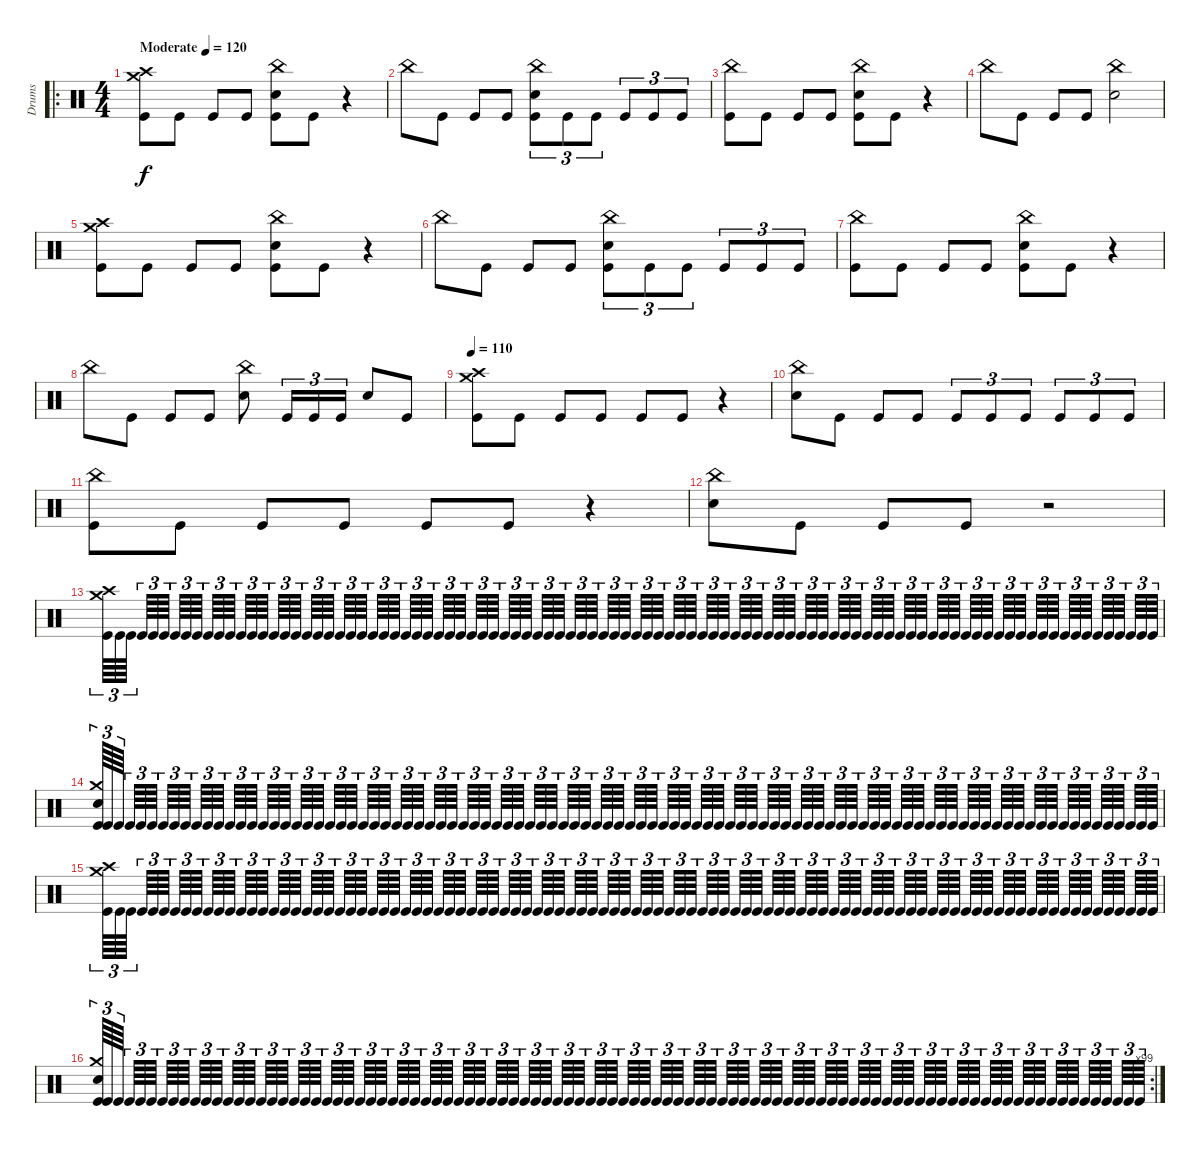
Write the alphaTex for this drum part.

\track ("Drums" "Drums") {instrument percussion}
\staff {score}
\articulation defaults
\ro
\ts (4 4)
\tempo (120 "Moderate")
\clef neutral
\ks c
("Kick (hit)" "Crash medium (hit)" "Crash high (hit)").8{dy f} "Kick (hit)".8 "Kick (hit)".8 "Kick (hit)".8 ("Kick (hit)" "Snare (hit) 2" "China (hit)").8 "Kick (hit)".8 r.4 |
"China (hit)".8 "Kick (hit)".8 "Kick (hit)".8 "Kick (hit)".8 ("Snare (hit) 2" "Kick (hit)" "China (hit)").8{tu (3 2)} "Kick (hit)".8{tu (3 2)} "Kick (hit)".8{tu (3 2)} "Kick (hit)".8{tu (3 2)} "Kick (hit)".8{tu (3 2)} "Kick (hit)".8{tu (3 2)} |
("Kick (hit)" "China (hit)").8 "Kick (hit)".8 "Kick (hit)".8 "Kick (hit)".8 ("Kick (hit)" "Snare (hit) 2" "China (hit)").8 "Kick (hit)".8 r.4 |
"China (hit)".8 "Kick (hit)".8 "Kick (hit)".8 "Kick (hit)".8 ("Snare (hit) 2" "China (hit)").2 |
("Kick (hit)" "Crash medium (hit)" "Crash high (hit)").8 "Kick (hit)".8 "Kick (hit)".8 "Kick (hit)".8 ("Kick (hit)" "Snare (hit) 2" "China (hit)").8 "Kick (hit)".8 r.4 |
"China (hit)".8 "Kick (hit)".8 "Kick (hit)".8 "Kick (hit)".8 ("Snare (hit) 2" "Kick (hit)" "China (hit)").8{tu (3 2)} "Kick (hit)".8{tu (3 2)} "Kick (hit)".8{tu (3 2)} "Kick (hit)".8{tu (3 2)} "Kick (hit)".8{tu (3 2)} "Kick (hit)".8{tu (3 2)} |
("Kick (hit)" "China (hit)").8 "Kick (hit)".8 "Kick (hit)".8 "Kick (hit)".8 ("Kick (hit)" "Snare (hit) 2" "China (hit)").8 "Kick (hit)".8 r.4 |
"China (hit)".8 "Kick (hit)".8 "Kick (hit)".8 "Kick (hit)".8 ("Snare (hit) 2" "China (hit)").8 "Kick (hit)".16{tu (3 2)} "Kick (hit)".16{tu (3 2)} "Kick (hit)".16{tu (3 2)} "Snare (hit) 2".8 "Kick (hit)".8 |
\tempo 110
("Kick (hit)" "Crash medium (hit)" "Crash high (hit)").8 "Kick (hit)".8 "Kick (hit)".8 "Kick (hit)".8 "Kick (hit)".8 "Kick (hit)".8 r.4 |
("China (hit)" "Snare (hit) 2").8 "Kick (hit)".8 "Kick (hit)".8 "Kick (hit)".8 "Kick (hit)".8{tu (3 2)} "Kick (hit)".8{tu (3 2)} "Kick (hit)".8{tu (3 2)} "Kick (hit)".8{tu (3 2)} "Kick (hit)".8{tu (3 2)} "Kick (hit)".8{tu (3 2)} |
("Kick (hit)" "China (hit)").8 "Kick (hit)".8 "Kick (hit)".8 "Kick (hit)".8 "Kick (hit)".8 "Kick (hit)".8 r.4 |
("China (hit)" "Snare (hit) 2").8 "Kick (hit)".8 "Kick (hit)".8 "Kick (hit)".8 r.2 |
("Kick (hit)" "Crash medium (hit)" "Crash high (hit)").64{tu (3 2)} "Kick (hit)".64{tu (3 2)} "Kick (hit)".64{tu (3 2) beam splitsecondary} "Kick (hit)".64{tu (3 2)} "Kick (hit)".64{tu (3 2)} "Kick (hit)".64{tu (3 2) beam splitsecondary} "Kick (hit)".64{tu (3 2)} "Kick (hit)".64{tu (3 2)} "Kick (hit)".64{tu (3 2) beam splitsecondary} "Kick (hit)".64{tu (3 2)} "Kick (hit)".64{tu (3 2)} "Kick (hit)".64{tu (3 2) beam splitsecondary} "Kick (hit)".64{tu (3 2)} "Kick (hit)".64{tu (3 2)} "Kick (hit)".64{tu (3 2) beam splitsecondary} "Kick (hit)".64{tu (3 2)} "Kick (hit)".64{tu (3 2)} "Kick (hit)".64{tu (3 2) beam splitsecondary} "Kick (hit)".64{tu (3 2)} "Kick (hit)".64{tu (3 2)} "Kick (hit)".64{tu (3 2) beam splitsecondary} "Kick (hit)".64{tu (3 2)} "Kick (hit)".64{tu (3 2)} "Kick (hit)".64{tu (3 2)} "Kick (hit)".64{tu (3 2)} "Kick (hit)".64{tu (3 2)} "Kick (hit)".64{tu (3 2) beam splitsecondary} "Kick (hit)".64{tu (3 2)} "Kick (hit)".64{tu (3 2)} "Kick (hit)".64{tu (3 2) beam splitsecondary} "Kick (hit)".64{tu (3 2)} "Kick (hit)".64{tu (3 2)} "Kick (hit)".64{tu (3 2) beam splitsecondary} "Kick (hit)".64{tu (3 2)} "Kick (hit)".64{tu (3 2)} "Kick (hit)".64{tu (3 2) beam splitsecondary} "Kick (hit)".64{tu (3 2)} "Kick (hit)".64{tu (3 2)} "Kick (hit)".64{tu (3 2) beam splitsecondary} "Kick (hit)".64{tu (3 2)} "Kick (hit)".64{tu (3 2)} "Kick (hit)".64{tu (3 2) beam splitsecondary} "Kick (hit)".64{tu (3 2)} "Kick (hit)".64{tu (3 2)} "Kick (hit)".64{tu (3 2) beam splitsecondary} "Kick (hit)".64{tu (3 2)} "Kick (hit)".64{tu (3 2)} "Kick (hit)".64{tu (3 2)} "Kick (hit)".64{tu (3 2)} "Kick (hit)".64{tu (3 2)} "Kick (hit)".64{tu (3 2) beam splitsecondary} "Kick (hit)".64{tu (3 2)} "Kick (hit)".64{tu (3 2)} "Kick (hit)".64{tu (3 2) beam splitsecondary} "Kick (hit)".64{tu (3 2)} "Kick (hit)".64{tu (3 2)} "Kick (hit)".64{tu (3 2) beam splitsecondary} "Kick (hit)".64{tu (3 2)} "Kick (hit)".64{tu (3 2)} "Kick (hit)".64{tu (3 2) beam splitsecondary} "Kick (hit)".64{tu (3 2)} "Kick (hit)".64{tu (3 2)} "Kick (hit)".64{tu (3 2) beam splitsecondary} "Kick (hit)".64{tu (3 2)} "Kick (hit)".64{tu (3 2)} "Kick (hit)".64{tu (3 2) beam splitsecondary} "Kick (hit)".64{tu (3 2)} "Kick (hit)".64{tu (3 2)} "Kick (hit)".64{tu (3 2) beam splitsecondary} "Kick (hit)".64{tu (3 2)} "Kick (hit)".64{tu (3 2)} "Kick (hit)".64{tu (3 2)} "Kick (hit)".64{tu (3 2)} "Kick (hit)".64{tu (3 2)} "Kick (hit)".64{tu (3 2) beam splitsecondary} "Kick (hit)".64{tu (3 2)} "Kick (hit)".64{tu (3 2)} "Kick (hit)".64{tu (3 2) beam splitsecondary} "Kick (hit)".64{tu (3 2)} "Kick (hit)".64{tu (3 2)} "Kick (hit)".64{tu (3 2) beam splitsecondary} "Kick (hit)".64{tu (3 2)} "Kick (hit)".64{tu (3 2)} "Kick (hit)".64{tu (3 2) beam splitsecondary} "Kick (hit)".64{tu (3 2)} "Kick (hit)".64{tu (3 2)} "Kick (hit)".64{tu (3 2) beam splitsecondary} "Kick (hit)".64{tu (3 2)} "Kick (hit)".64{tu (3 2)} "Kick (hit)".64{tu (3 2) beam splitsecondary} "Kick (hit)".64{tu (3 2)} "Kick (hit)".64{tu (3 2)} "Kick (hit)".64{tu (3 2) beam splitsecondary} "Kick (hit)".64{tu (3 2)} "Kick (hit)".64{tu (3 2)} "Kick (hit)".64{tu (3 2)} |
("Kick (hit)" "Crash medium (hit)" "Snare (hit) 2").64{tu (3 2)} "Kick (hit)".64{tu (3 2)} "Kick (hit)".64{tu (3 2) beam splitsecondary} "Kick (hit)".64{tu (3 2)} "Kick (hit)".64{tu (3 2)} "Kick (hit)".64{tu (3 2) beam splitsecondary} "Kick (hit)".64{tu (3 2)} "Kick (hit)".64{tu (3 2)} "Kick (hit)".64{tu (3 2) beam splitsecondary} "Kick (hit)".64{tu (3 2)} "Kick (hit)".64{tu (3 2)} "Kick (hit)".64{tu (3 2) beam splitsecondary} "Kick (hit)".64{tu (3 2)} "Kick (hit)".64{tu (3 2)} "Kick (hit)".64{tu (3 2) beam splitsecondary} "Kick (hit)".64{tu (3 2)} "Kick (hit)".64{tu (3 2)} "Kick (hit)".64{tu (3 2) beam splitsecondary} "Kick (hit)".64{tu (3 2)} "Kick (hit)".64{tu (3 2)} "Kick (hit)".64{tu (3 2) beam splitsecondary} "Kick (hit)".64{tu (3 2)} "Kick (hit)".64{tu (3 2)} "Kick (hit)".64{tu (3 2)} "Kick (hit)".64{tu (3 2)} "Kick (hit)".64{tu (3 2)} "Kick (hit)".64{tu (3 2) beam splitsecondary} "Kick (hit)".64{tu (3 2)} "Kick (hit)".64{tu (3 2)} "Kick (hit)".64{tu (3 2) beam splitsecondary} "Kick (hit)".64{tu (3 2)} "Kick (hit)".64{tu (3 2)} "Kick (hit)".64{tu (3 2) beam splitsecondary} "Kick (hit)".64{tu (3 2)} "Kick (hit)".64{tu (3 2)} "Kick (hit)".64{tu (3 2) beam splitsecondary} "Kick (hit)".64{tu (3 2)} "Kick (hit)".64{tu (3 2)} "Kick (hit)".64{tu (3 2) beam splitsecondary} "Kick (hit)".64{tu (3 2)} "Kick (hit)".64{tu (3 2)} "Kick (hit)".64{tu (3 2) beam splitsecondary} "Kick (hit)".64{tu (3 2)} "Kick (hit)".64{tu (3 2)} "Kick (hit)".64{tu (3 2) beam splitsecondary} "Kick (hit)".64{tu (3 2)} "Kick (hit)".64{tu (3 2)} "Kick (hit)".64{tu (3 2)} "Kick (hit)".64{tu (3 2)} "Kick (hit)".64{tu (3 2)} "Kick (hit)".64{tu (3 2) beam splitsecondary} "Kick (hit)".64{tu (3 2)} "Kick (hit)".64{tu (3 2)} "Kick (hit)".64{tu (3 2) beam splitsecondary} "Kick (hit)".64{tu (3 2)} "Kick (hit)".64{tu (3 2)} "Kick (hit)".64{tu (3 2) beam splitsecondary} "Kick (hit)".64{tu (3 2)} "Kick (hit)".64{tu (3 2)} "Kick (hit)".64{tu (3 2) beam splitsecondary} "Kick (hit)".64{tu (3 2)} "Kick (hit)".64{tu (3 2)} "Kick (hit)".64{tu (3 2) beam splitsecondary} "Kick (hit)".64{tu (3 2)} "Kick (hit)".64{tu (3 2)} "Kick (hit)".64{tu (3 2) beam splitsecondary} "Kick (hit)".64{tu (3 2)} "Kick (hit)".64{tu (3 2)} "Kick (hit)".64{tu (3 2) beam splitsecondary} "Kick (hit)".64{tu (3 2)} "Kick (hit)".64{tu (3 2)} "Kick (hit)".64{tu (3 2)} "Kick (hit)".64{tu (3 2)} "Kick (hit)".64{tu (3 2)} "Kick (hit)".64{tu (3 2) beam splitsecondary} "Kick (hit)".64{tu (3 2)} "Kick (hit)".64{tu (3 2)} "Kick (hit)".64{tu (3 2) beam splitsecondary} "Kick (hit)".64{tu (3 2)} "Kick (hit)".64{tu (3 2)} "Kick (hit)".64{tu (3 2) beam splitsecondary} "Kick (hit)".64{tu (3 2)} "Kick (hit)".64{tu (3 2)} "Kick (hit)".64{tu (3 2) beam splitsecondary} "Kick (hit)".64{tu (3 2)} "Kick (hit)".64{tu (3 2)} "Kick (hit)".64{tu (3 2) beam splitsecondary} "Kick (hit)".64{tu (3 2)} "Kick (hit)".64{tu (3 2)} "Kick (hit)".64{tu (3 2) beam splitsecondary} "Kick (hit)".64{tu (3 2)} "Kick (hit)".64{tu (3 2)} "Kick (hit)".64{tu (3 2) beam splitsecondary} "Kick (hit)".64{tu (3 2)} "Kick (hit)".64{tu (3 2)} "Kick (hit)".64{tu (3 2)} |
("Kick (hit)" "Crash medium (hit)" "Crash high (hit)").64{tu (3 2)} "Kick (hit)".64{tu (3 2)} "Kick (hit)".64{tu (3 2) beam splitsecondary} "Kick (hit)".64{tu (3 2)} "Kick (hit)".64{tu (3 2)} "Kick (hit)".64{tu (3 2) beam splitsecondary} "Kick (hit)".64{tu (3 2)} "Kick (hit)".64{tu (3 2)} "Kick (hit)".64{tu (3 2) beam splitsecondary} "Kick (hit)".64{tu (3 2)} "Kick (hit)".64{tu (3 2)} "Kick (hit)".64{tu (3 2) beam splitsecondary} "Kick (hit)".64{tu (3 2)} "Kick (hit)".64{tu (3 2)} "Kick (hit)".64{tu (3 2) beam splitsecondary} "Kick (hit)".64{tu (3 2)} "Kick (hit)".64{tu (3 2)} "Kick (hit)".64{tu (3 2) beam splitsecondary} "Kick (hit)".64{tu (3 2)} "Kick (hit)".64{tu (3 2)} "Kick (hit)".64{tu (3 2) beam splitsecondary} "Kick (hit)".64{tu (3 2)} "Kick (hit)".64{tu (3 2)} "Kick (hit)".64{tu (3 2)} "Kick (hit)".64{tu (3 2)} "Kick (hit)".64{tu (3 2)} "Kick (hit)".64{tu (3 2) beam splitsecondary} "Kick (hit)".64{tu (3 2)} "Kick (hit)".64{tu (3 2)} "Kick (hit)".64{tu (3 2) beam splitsecondary} "Kick (hit)".64{tu (3 2)} "Kick (hit)".64{tu (3 2)} "Kick (hit)".64{tu (3 2) beam splitsecondary} "Kick (hit)".64{tu (3 2)} "Kick (hit)".64{tu (3 2)} "Kick (hit)".64{tu (3 2) beam splitsecondary} "Kick (hit)".64{tu (3 2)} "Kick (hit)".64{tu (3 2)} "Kick (hit)".64{tu (3 2) beam splitsecondary} "Kick (hit)".64{tu (3 2)} "Kick (hit)".64{tu (3 2)} "Kick (hit)".64{tu (3 2) beam splitsecondary} "Kick (hit)".64{tu (3 2)} "Kick (hit)".64{tu (3 2)} "Kick (hit)".64{tu (3 2) beam splitsecondary} "Kick (hit)".64{tu (3 2)} "Kick (hit)".64{tu (3 2)} "Kick (hit)".64{tu (3 2)} "Kick (hit)".64{tu (3 2)} "Kick (hit)".64{tu (3 2)} "Kick (hit)".64{tu (3 2) beam splitsecondary} "Kick (hit)".64{tu (3 2)} "Kick (hit)".64{tu (3 2)} "Kick (hit)".64{tu (3 2) beam splitsecondary} "Kick (hit)".64{tu (3 2)} "Kick (hit)".64{tu (3 2)} "Kick (hit)".64{tu (3 2) beam splitsecondary} "Kick (hit)".64{tu (3 2)} "Kick (hit)".64{tu (3 2)} "Kick (hit)".64{tu (3 2) beam splitsecondary} "Kick (hit)".64{tu (3 2)} "Kick (hit)".64{tu (3 2)} "Kick (hit)".64{tu (3 2) beam splitsecondary} "Kick (hit)".64{tu (3 2)} "Kick (hit)".64{tu (3 2)} "Kick (hit)".64{tu (3 2) beam splitsecondary} "Kick (hit)".64{tu (3 2)} "Kick (hit)".64{tu (3 2)} "Kick (hit)".64{tu (3 2) beam splitsecondary} "Kick (hit)".64{tu (3 2)} "Kick (hit)".64{tu (3 2)} "Kick (hit)".64{tu (3 2)} "Kick (hit)".64{tu (3 2)} "Kick (hit)".64{tu (3 2)} "Kick (hit)".64{tu (3 2) beam splitsecondary} "Kick (hit)".64{tu (3 2)} "Kick (hit)".64{tu (3 2)} "Kick (hit)".64{tu (3 2) beam splitsecondary} "Kick (hit)".64{tu (3 2)} "Kick (hit)".64{tu (3 2)} "Kick (hit)".64{tu (3 2) beam splitsecondary} "Kick (hit)".64{tu (3 2)} "Kick (hit)".64{tu (3 2)} "Kick (hit)".64{tu (3 2) beam splitsecondary} "Kick (hit)".64{tu (3 2)} "Kick (hit)".64{tu (3 2)} "Kick (hit)".64{tu (3 2) beam splitsecondary} "Kick (hit)".64{tu (3 2)} "Kick (hit)".64{tu (3 2)} "Kick (hit)".64{tu (3 2) beam splitsecondary} "Kick (hit)".64{tu (3 2)} "Kick (hit)".64{tu (3 2)} "Kick (hit)".64{tu (3 2) beam splitsecondary} "Kick (hit)".64{tu (3 2)} "Kick (hit)".64{tu (3 2)} "Kick (hit)".64{tu (3 2)} |
\rc 99
("Kick (hit)" "Crash medium (hit)" "Snare (hit) 2").64{tu (3 2)} "Kick (hit)".64{tu (3 2)} "Kick (hit)".64{tu (3 2) beam splitsecondary} "Kick (hit)".64{tu (3 2)} "Kick (hit)".64{tu (3 2)} "Kick (hit)".64{tu (3 2) beam splitsecondary} "Kick (hit)".64{tu (3 2)} "Kick (hit)".64{tu (3 2)} "Kick (hit)".64{tu (3 2) beam splitsecondary} "Kick (hit)".64{tu (3 2)} "Kick (hit)".64{tu (3 2)} "Kick (hit)".64{tu (3 2) beam splitsecondary} "Kick (hit)".64{tu (3 2)} "Kick (hit)".64{tu (3 2)} "Kick (hit)".64{tu (3 2) beam splitsecondary} "Kick (hit)".64{tu (3 2)} "Kick (hit)".64{tu (3 2)} "Kick (hit)".64{tu (3 2) beam splitsecondary} "Kick (hit)".64{tu (3 2)} "Kick (hit)".64{tu (3 2)} "Kick (hit)".64{tu (3 2) beam splitsecondary} "Kick (hit)".64{tu (3 2)} "Kick (hit)".64{tu (3 2)} "Kick (hit)".64{tu (3 2)} "Kick (hit)".64{tu (3 2)} "Kick (hit)".64{tu (3 2)} "Kick (hit)".64{tu (3 2) beam splitsecondary} "Kick (hit)".64{tu (3 2)} "Kick (hit)".64{tu (3 2)} "Kick (hit)".64{tu (3 2) beam splitsecondary} "Kick (hit)".64{tu (3 2)} "Kick (hit)".64{tu (3 2)} "Kick (hit)".64{tu (3 2) beam splitsecondary} "Kick (hit)".64{tu (3 2)} "Kick (hit)".64{tu (3 2)} "Kick (hit)".64{tu (3 2) beam splitsecondary} "Kick (hit)".64{tu (3 2)} "Kick (hit)".64{tu (3 2)} "Kick (hit)".64{tu (3 2) beam splitsecondary} "Kick (hit)".64{tu (3 2)} "Kick (hit)".64{tu (3 2)} "Kick (hit)".64{tu (3 2) beam splitsecondary} "Kick (hit)".64{tu (3 2)} "Kick (hit)".64{tu (3 2)} "Kick (hit)".64{tu (3 2) beam splitsecondary} "Kick (hit)".64{tu (3 2)} "Kick (hit)".64{tu (3 2)} "Kick (hit)".64{tu (3 2)} "Kick (hit)".64{tu (3 2)} "Kick (hit)".64{tu (3 2)} "Kick (hit)".64{tu (3 2) beam splitsecondary} "Kick (hit)".64{tu (3 2)} "Kick (hit)".64{tu (3 2)} "Kick (hit)".64{tu (3 2) beam splitsecondary} "Kick (hit)".64{tu (3 2)} "Kick (hit)".64{tu (3 2)} "Kick (hit)".64{tu (3 2) beam splitsecondary} "Kick (hit)".64{tu (3 2)} "Kick (hit)".64{tu (3 2)} "Kick (hit)".64{tu (3 2) beam splitsecondary} "Kick (hit)".64{tu (3 2)} "Kick (hit)".64{tu (3 2)} "Kick (hit)".64{tu (3 2) beam splitsecondary} "Kick (hit)".64{tu (3 2)} "Kick (hit)".64{tu (3 2)} "Kick (hit)".64{tu (3 2) beam splitsecondary} "Kick (hit)".64{tu (3 2)} "Kick (hit)".64{tu (3 2)} "Kick (hit)".64{tu (3 2) beam splitsecondary} "Kick (hit)".64{tu (3 2)} "Kick (hit)".64{tu (3 2)} "Kick (hit)".64{tu (3 2)} "Kick (hit)".64{tu (3 2)} "Kick (hit)".64{tu (3 2)} "Kick (hit)".64{tu (3 2) beam splitsecondary} "Kick (hit)".64{tu (3 2)} "Kick (hit)".64{tu (3 2)} "Kick (hit)".64{tu (3 2) beam splitsecondary} "Kick (hit)".64{tu (3 2)} "Kick (hit)".64{tu (3 2)} "Kick (hit)".64{tu (3 2) beam splitsecondary} "Kick (hit)".64{tu (3 2)} "Kick (hit)".64{tu (3 2)} "Kick (hit)".64{tu (3 2) beam splitsecondary} "Kick (hit)".64{tu (3 2)} "Kick (hit)".64{tu (3 2)} "Kick (hit)".64{tu (3 2) beam splitsecondary} "Kick (hit)".64{tu (3 2)} "Kick (hit)".64{tu (3 2)} "Kick (hit)".64{tu (3 2) beam splitsecondary} "Kick (hit)".64{tu (3 2)} "Kick (hit)".64{tu (3 2)} "Kick (hit)".64{tu (3 2) beam splitsecondary} "Kick (hit)".64{tu (3 2)} "Kick (hit)".64{tu (3 2)} "Kick (hit)".64{tu (3 2)}
